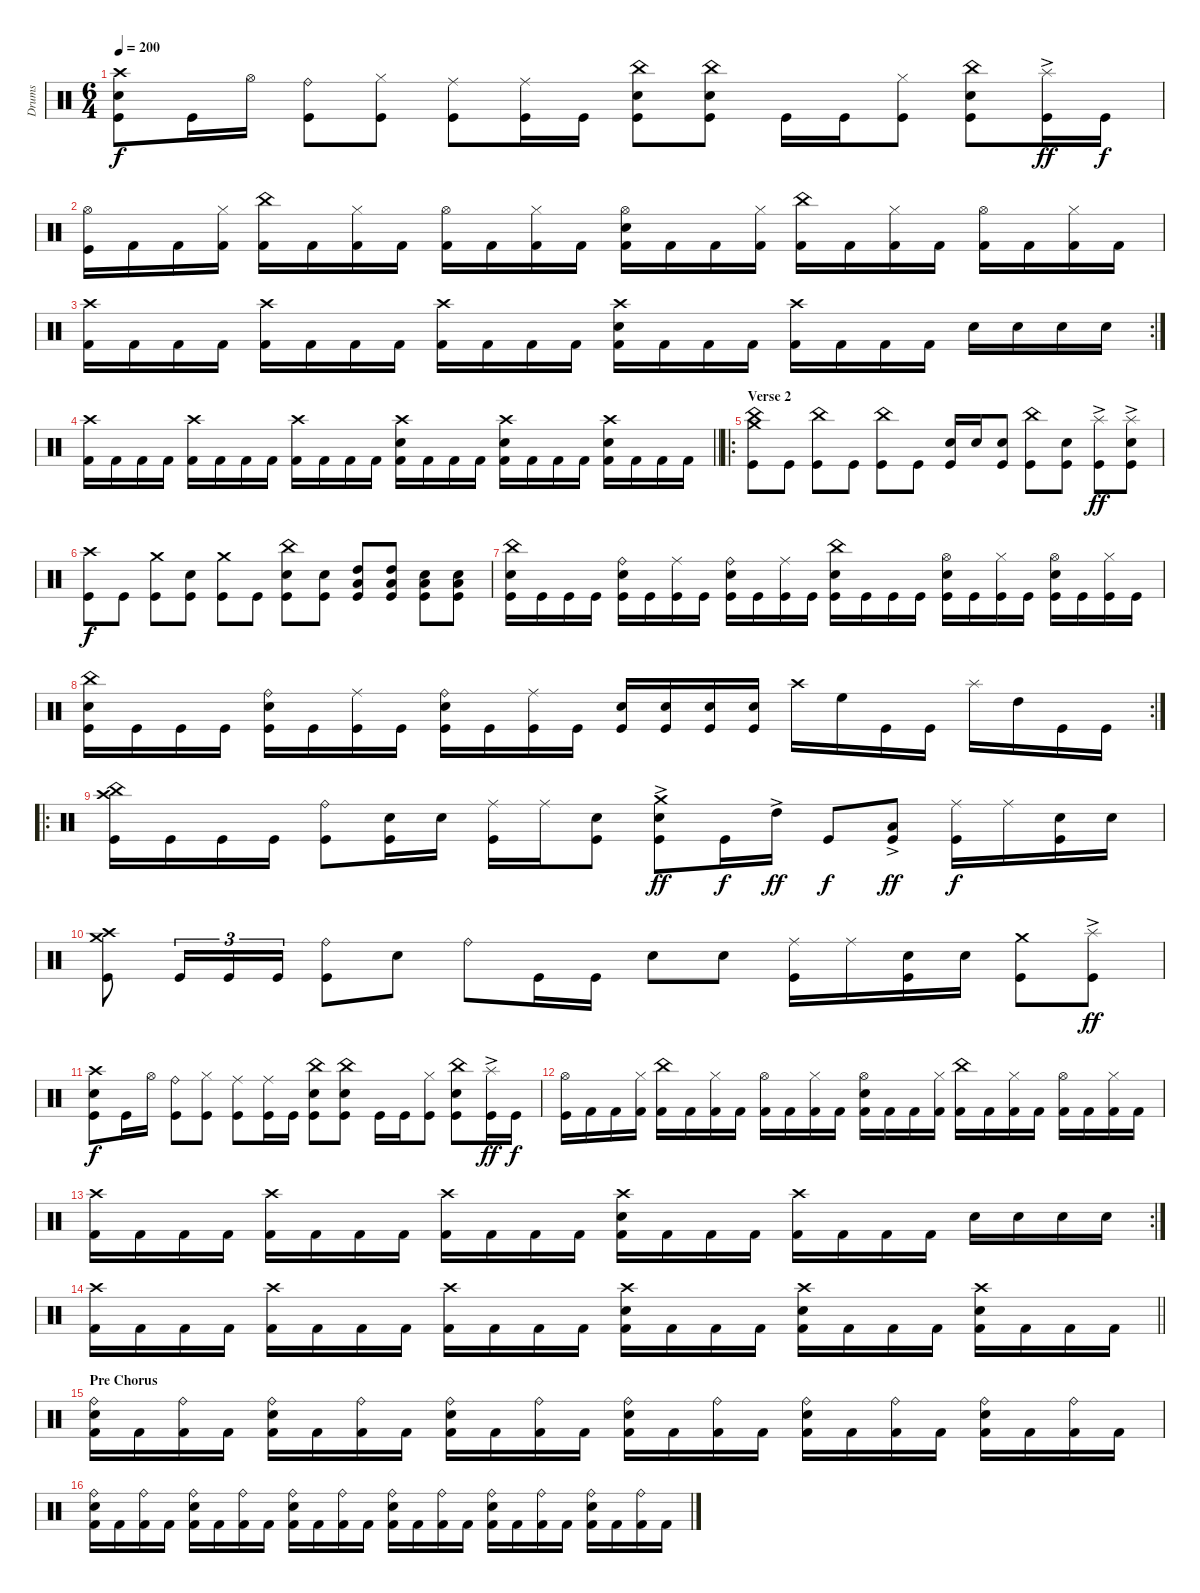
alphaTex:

\track ("Drums" "Drums") {mute instrument percussion}
\staff {score}
\articulation defaults
\ts (6 4)
\tempo 200
\clef neutral
\ks c
("Crash high (hit)" "Electric Snare (hit)" "Kick (hit)").8{dy f} "Kick (hit)".16 "Hi-Hat (open)".16 ("Ride (bell)" "Kick (hit)").8 ("Hi-Hat (closed)" "Kick (hit)").8 ("Ride (middle)" "Kick (hit)").8 ("Ride (middle)" "Kick (hit)").16 "Kick (hit)".16 ("China (hit)" "Electric Snare (hit)" "Kick (hit)").8 ("China (hit)" "Electric Snare (hit)" "Kick (hit)").8 "Kick (hit)".16 "Kick (hit)".16 ("Hi-Hat (closed)" "Kick (hit)").8 ("China (hit)" "Electric Snare (hit)" "Kick (hit)").8 ("Splash (hit)"{ac} "Kick (hit)").16{dy ff} "Kick (hit)".16{dy f} |
("Hi-Hat (open)" "Kick (hit)").16 "Kick (hit) 2".16 "Kick (hit) 2".16 ("Hi-Hat (closed)" "Kick (hit) 2").16 ("China (hit)" "Kick (hit) 2").16 "Kick (hit) 2".16 ("Hi-Hat (closed)" "Kick (hit) 2").16 "Kick (hit) 2".16 ("Hi-Hat (open)" "Kick (hit) 2").16 "Kick (hit) 2".16 ("Hi-Hat (closed)" "Kick (hit) 2").16 "Kick (hit) 2".16 ("Hi-Hat (open)" "Electric Snare (hit)" "Kick (hit) 2").16 "Kick (hit) 2".16 "Kick (hit) 2".16 ("Hi-Hat (closed)" "Kick (hit) 2").16 ("China (hit)" "Kick (hit) 2").16 "Kick (hit) 2".16 ("Hi-Hat (closed)" "Kick (hit) 2").16 "Kick (hit) 2".16 ("Hi-Hat (open)" "Kick (hit) 2").16 "Kick (hit) 2".16 ("Hi-Hat (closed)" "Kick (hit) 2").16 "Kick (hit) 2".16 |
\rc 2
("Crash high (hit)" "Kick (hit) 2").16 "Kick (hit) 2".16 "Kick (hit) 2".16 "Kick (hit) 2".16 ("Crash high (hit)" "Kick (hit) 2").16 "Kick (hit) 2".16 "Kick (hit) 2".16 "Kick (hit) 2".16 ("Crash high (hit)" "Kick (hit) 2").16 "Kick (hit) 2".16 "Kick (hit) 2".16 "Kick (hit) 2".16 ("Crash high (hit)" "Electric Snare (hit)" "Kick (hit) 2").16 "Kick (hit) 2".16 "Kick (hit) 2".16 "Kick (hit) 2".16 ("Crash high (hit)" "Kick (hit) 2").16 "Kick (hit) 2".16 "Kick (hit) 2".16 "Kick (hit) 2".16 "Electric Snare (hit)".16 "Electric Snare (hit)".16 "Electric Snare (hit)".16 "Electric Snare (hit)".16 |
\barLineRight lightlight
("Crash high (hit)" "Kick (hit) 2").16 "Kick (hit) 2".16 "Kick (hit) 2".16 "Kick (hit) 2".16 ("Crash high (hit)" "Kick (hit) 2").16 "Kick (hit) 2".16 "Kick (hit) 2".16 "Kick (hit) 2".16 ("Crash high (hit)" "Kick (hit) 2").16 "Kick (hit) 2".16 "Kick (hit) 2".16 "Kick (hit) 2".16 ("Crash high (hit)" "Electric Snare (hit)" "Kick (hit) 2").16 "Kick (hit) 2".16 "Kick (hit) 2".16 "Kick (hit) 2".16 ("Crash high (hit)" "Electric Snare (hit)" "Kick (hit) 2").16 "Kick (hit) 2".16 "Kick (hit) 2".16 "Kick (hit) 2".16 ("Crash high (hit)" "Electric Snare (hit)" "Kick (hit) 2").16 "Kick (hit) 2".16 "Kick (hit) 2".16 "Kick (hit) 2".16 |
\ro
\section ("" "Verse 2")
("Crash medium (hit)" "China (hit)" "Kick (hit)").8 "Kick (hit)".8 ("China (hit)" "Kick (hit)").8 "Kick (hit)".8 ("China (hit)" "Kick (hit)").8 "Kick (hit)".8 ("Electric Snare (hit)" "Kick (hit)").16 "Electric Snare (hit)".16 ("Electric Snare (hit)" "Kick (hit)").8 ("China (hit)" "Kick (hit)").8 ("Electric Snare (hit)" "Kick (hit)").8 ("Splash (hit)"{ac} "Kick (hit)").8{dy ff} ("Splash (hit)"{ac} "Electric Snare (hit)" "Kick (hit)").8 |
("Crash high (hit)" "Kick (hit)").8{dy f} "Kick (hit)".8 ("Crash medium (hit)" "Kick (hit)").8 ("Electric Snare (hit)" "Kick (hit)").8 ("Crash medium (hit)" "Kick (hit)").8 "Kick (hit)".8 ("China (hit)" "Electric Snare (hit)" "Kick (hit)").8 ("Electric Snare (hit)" "Kick (hit)").8 ("High Tom (hit)" "Low Tom (hit)" "Kick (hit)").8 ("High Tom (hit)" "Low Tom (hit)" "Kick (hit)").8 ("Low Floor Tom (hit)" "Electric Snare (hit)" "Kick (hit)").8 ("Low Floor Tom (hit)" "Electric Snare (hit)" "Kick (hit)").8 |
("China (hit)" "Electric Snare (hit)" "Kick (hit)").16 "Kick (hit)".16 "Kick (hit)".16 "Kick (hit)".16 ("Ride (bell)" "Electric Snare (hit)" "Kick (hit)").16 "Kick (hit)".16 ("Ride (middle)" "Kick (hit)").16 "Kick (hit)".16 ("Ride (bell)" "Electric Snare (hit)" "Kick (hit)").16 "Kick (hit)".16 ("Ride (middle)" "Kick (hit)").16 "Kick (hit)".16 ("China (hit)" "Electric Snare (hit)" "Kick (hit)").16 "Kick (hit)".16 "Kick (hit)".16 "Kick (hit)".16 ("Hi-Hat (open)" "Electric Snare (hit)" "Kick (hit)").16 "Kick (hit)".16 ("Hi-Hat (closed)" "Kick (hit)").16 "Kick (hit)".16 ("Hi-Hat (open)" "Electric Snare (hit)" "Kick (hit)").16 "Kick (hit)".16 ("Hi-Hat (closed)" "Kick (hit)").16 "Kick (hit)".16 |
\rc 2
("China (hit)" "Electric Snare (hit)" "Kick (hit)").16 "Kick (hit)".16 "Kick (hit)".16 "Kick (hit)".16 ("Ride (bell)" "Electric Snare (hit)" "Kick (hit)").16 "Kick (hit)".16 ("Ride (middle)" "Kick (hit)").16 "Kick (hit)".16 ("Ride (bell)" "Electric Snare (hit)" "Kick (hit)").16 "Kick (hit)".16 ("Ride (middle)" "Kick (hit)").16 "Kick (hit)".16 ("Electric Snare (hit)" "Kick (hit)").16 ("Electric Snare (hit)" "Kick (hit)").16 ("Electric Snare (hit)" "Kick (hit)").16 ("Electric Snare (hit)" "Kick (hit)").16 "Crash high (hit)".16 "High Floor Tom (hit)".16 "Kick (hit)".16 "Kick (hit)".16 "Splash (hit)".16 "High Tom (hit)".16 "Kick (hit)".16 "Kick (hit)".16 |
\ro
("China (hit)" "Crash high (hit)" "Kick (hit)").16 "Kick (hit)".16 "Kick (hit)".16 "Kick (hit)".16 ("Ride (bell)" "Kick (hit)").8 ("Electric Snare (hit)" "Kick (hit)").16 "Electric Snare (hit)".16 ("Ride (middle)" "Kick (hit)").16 "Ride (middle)".16 ("Electric Snare (hit)" "Kick (hit)").8 ("Crash medium (hit)" "Electric Snare (hit)"{ac} "Kick (hit)").8{dy ff} "Kick (hit)".16{dy f} "High Tom (hit)"{ac}.16{dy ff} "Kick (hit)".8{dy f} ("Low Tom (hit)"{ac} "Kick (hit)").8{dy ff} ("Ride (middle)" "Kick (hit)").16{dy f} "Ride (middle)".16 ("Electric Snare (hit)" "Kick (hit)").16 "Electric Snare (hit)".16 |
("Crash medium (hit)" "Crash high (hit)" "Kick (hit)").8 "Kick (hit)".16{tu (3 2)} "Kick (hit)".16{tu (3 2)} "Kick (hit)".16{tu (3 2)} ("Ride (bell)" "Kick (hit)").8 "Electric Snare (hit)".8 "Ride (bell)".8 "Kick (hit)".16 "Kick (hit)".16 "Electric Snare (hit)".8 "Electric Snare (hit)".8 ("Ride (middle)" "Kick (hit)").16 "Ride (middle)".16 ("Electric Snare (hit)" "Kick (hit)").16 "Electric Snare (hit)".16 ("Crash medium (hit)" "Kick (hit)").8 ("Splash (hit)"{ac} "Kick (hit)").8{dy ff} |
("Crash high (hit)" "Electric Snare (hit)" "Kick (hit)").8{dy f} "Kick (hit)".16 "Hi-Hat (open)".16 ("Ride (bell)" "Kick (hit)").8 ("Hi-Hat (closed)" "Kick (hit)").8 ("Ride (middle)" "Kick (hit)").8 ("Ride (middle)" "Kick (hit)").16 "Kick (hit)".16 ("China (hit)" "Electric Snare (hit)" "Kick (hit)").8 ("China (hit)" "Electric Snare (hit)" "Kick (hit)").8 "Kick (hit)".16 "Kick (hit)".16 ("Hi-Hat (closed)" "Kick (hit)").8 ("China (hit)" "Electric Snare (hit)" "Kick (hit)").8 ("Splash (hit)"{ac} "Kick (hit)").16{dy ff} "Kick (hit)".16{dy f} |
("Hi-Hat (open)" "Kick (hit)").16 "Kick (hit) 2".16 "Kick (hit) 2".16 ("Hi-Hat (closed)" "Kick (hit) 2").16 ("China (hit)" "Kick (hit) 2").16 "Kick (hit) 2".16 ("Hi-Hat (closed)" "Kick (hit) 2").16 "Kick (hit) 2".16 ("Hi-Hat (open)" "Kick (hit) 2").16 "Kick (hit) 2".16 ("Hi-Hat (closed)" "Kick (hit) 2").16 "Kick (hit) 2".16 ("Hi-Hat (open)" "Electric Snare (hit)" "Kick (hit) 2").16 "Kick (hit) 2".16 "Kick (hit) 2".16 ("Hi-Hat (closed)" "Kick (hit) 2").16 ("China (hit)" "Kick (hit) 2").16 "Kick (hit) 2".16 ("Hi-Hat (closed)" "Kick (hit) 2").16 "Kick (hit) 2".16 ("Hi-Hat (open)" "Kick (hit) 2").16 "Kick (hit) 2".16 ("Hi-Hat (closed)" "Kick (hit) 2").16 "Kick (hit) 2".16 |
\rc 2
("Crash high (hit)" "Kick (hit) 2").16 "Kick (hit) 2".16 "Kick (hit) 2".16 "Kick (hit) 2".16 ("Crash high (hit)" "Kick (hit) 2").16 "Kick (hit) 2".16 "Kick (hit) 2".16 "Kick (hit) 2".16 ("Crash high (hit)" "Kick (hit) 2").16 "Kick (hit) 2".16 "Kick (hit) 2".16 "Kick (hit) 2".16 ("Crash high (hit)" "Electric Snare (hit)" "Kick (hit) 2").16 "Kick (hit) 2".16 "Kick (hit) 2".16 "Kick (hit) 2".16 ("Crash high (hit)" "Kick (hit) 2").16 "Kick (hit) 2".16 "Kick (hit) 2".16 "Kick (hit) 2".16 "Electric Snare (hit)".16 "Electric Snare (hit)".16 "Electric Snare (hit)".16 "Electric Snare (hit)".16 |
\barLineRight lightlight
("Crash high (hit)" "Kick (hit) 2").16 "Kick (hit) 2".16 "Kick (hit) 2".16 "Kick (hit) 2".16 ("Crash high (hit)" "Kick (hit) 2").16 "Kick (hit) 2".16 "Kick (hit) 2".16 "Kick (hit) 2".16 ("Crash high (hit)" "Kick (hit) 2").16 "Kick (hit) 2".16 "Kick (hit) 2".16 "Kick (hit) 2".16 ("Crash high (hit)" "Electric Snare (hit)" "Kick (hit) 2").16 "Kick (hit) 2".16 "Kick (hit) 2".16 "Kick (hit) 2".16 ("Crash high (hit)" "Electric Snare (hit)" "Kick (hit) 2").16 "Kick (hit) 2".16 "Kick (hit) 2".16 "Kick (hit) 2".16 ("Crash high (hit)" "Electric Snare (hit)" "Kick (hit) 2").16 "Kick (hit) 2".16 "Kick (hit) 2".16 "Kick (hit) 2".16 |
\section ("" "Pre Chorus")
("Ride (bell)" "Electric Snare (hit)" "Kick (hit) 2").16 "Kick (hit) 2".16 ("Ride (bell)" "Kick (hit) 2").16 "Kick (hit) 2".16 ("Ride (bell)" "Electric Snare (hit)" "Kick (hit) 2").16 "Kick (hit) 2".16 ("Ride (bell)" "Kick (hit) 2").16 "Kick (hit) 2".16 ("Ride (bell)" "Electric Snare (hit)" "Kick (hit) 2").16 "Kick (hit) 2".16 ("Ride (bell)" "Kick (hit) 2").16 "Kick (hit) 2".16 ("Ride (bell)" "Electric Snare (hit)" "Kick (hit) 2").16 "Kick (hit) 2".16 ("Ride (bell)" "Kick (hit) 2").16 "Kick (hit) 2".16 ("Ride (bell)" "Electric Snare (hit)" "Kick (hit) 2").16 "Kick (hit) 2".16 ("Ride (bell)" "Kick (hit) 2").16 "Kick (hit) 2".16 ("Ride (bell)" "Electric Snare (hit)" "Kick (hit) 2").16 "Kick (hit) 2".16 ("Ride (bell)" "Kick (hit) 2").16 "Kick (hit) 2".16 |
("Ride (bell)" "Electric Snare (hit)" "Kick (hit) 2").16 "Kick (hit) 2".16 ("Ride (bell)" "Kick (hit) 2").16 "Kick (hit) 2".16 ("Ride (bell)" "Electric Snare (hit)" "Kick (hit) 2").16 "Kick (hit) 2".16 ("Ride (bell)" "Kick (hit) 2").16 "Kick (hit) 2".16 ("Ride (bell)" "Electric Snare (hit)" "Kick (hit) 2").16 "Kick (hit) 2".16 ("Ride (bell)" "Kick (hit) 2").16 "Kick (hit) 2".16 ("Ride (bell)" "Electric Snare (hit)" "Kick (hit) 2").16 "Kick (hit) 2".16 ("Ride (bell)" "Kick (hit) 2").16 "Kick (hit) 2".16 ("Ride (bell)" "Electric Snare (hit)" "Kick (hit) 2").16 "Kick (hit) 2".16 ("Ride (bell)" "Kick (hit) 2").16 "Kick (hit) 2".16 ("Ride (bell)" "Electric Snare (hit)" "Kick (hit) 2").16 "Kick (hit) 2".16 ("Ride (bell)" "Kick (hit) 2").16 "Kick (hit) 2".16
